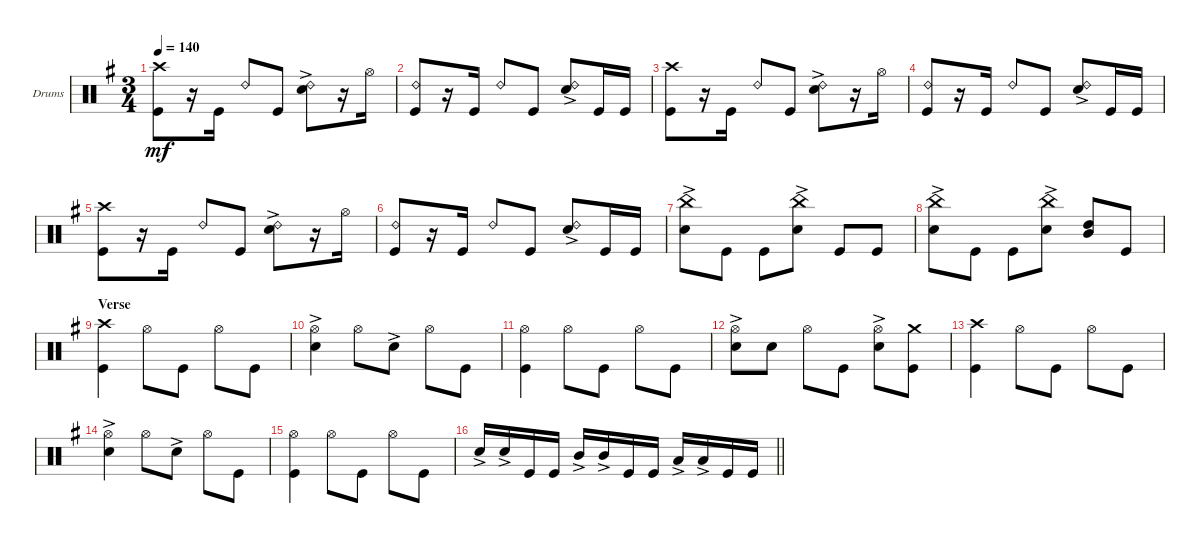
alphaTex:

\bracketExtendMode groupsimilarinstruments
\firstSystemTrackNameOrientation horizontal
\otherSystemsTrackNameOrientation horizontal
\track ("Drumkit" "Drums") {instrument percussion}
\staff {score}
\articulation defaults
\ts (3 4)
\tempo 140
\clef neutral
\ks eminor
("Kick (hit)" "Crash high (hit)").8{dy mf} r.16 "Kick (hit)".16 "Ride (bell) 2".8 "Kick (hit)".8 ("Snare (hit) 2"{ac} "Ride (bell) 2").8 r.16 "Hi-Hat (open)".16 |
("Kick (hit)" "Ride (bell) 2").8 r.16 "Kick (hit)".16 "Ride (bell) 2".8 "Kick (hit)".8 ("Snare (hit) 2"{ac} "Ride (bell) 2").8 "Kick (hit)".16 "Kick (hit)".16 |
("Kick (hit)" "Crash high (hit)").8 r.16 "Kick (hit)".16 "Ride (bell) 2".8 "Kick (hit)".8 ("Snare (hit) 2"{ac} "Ride (bell) 2").8 r.16 "Hi-Hat (open)".16 |
("Kick (hit)" "Ride (bell) 2").8 r.16 "Kick (hit)".16 "Ride (bell) 2".8 "Kick (hit)".8 ("Snare (hit) 2"{ac} "Ride (bell) 2").8 "Kick (hit)".16 "Kick (hit)".16 |
("Kick (hit)" "Crash high (hit)").8 r.16 "Kick (hit)".16 "Ride (bell) 2".8 "Kick (hit)".8 ("Snare (hit) 2"{ac} "Ride (bell) 2").8 r.16 "Hi-Hat (open)".16 |
("Kick (hit)" "Ride (bell) 2").8 r.16 "Kick (hit)".16 "Ride (bell) 2".8 "Kick (hit)".8 ("Snare (hit) 2"{ac} "Ride (bell) 2").8 "Kick (hit)".16 "Kick (hit)".16 |
("Snare (hit) 2"{ac} "China (hit)").8 "Kick (hit)".8 "Kick (hit)".8 ("Snare (hit) 2"{ac} "China (hit)").8 "Kick (hit)".8 "Kick (hit)".8 |
("Snare (hit) 2"{ac} "China (hit)").8 "Kick (hit)".8 "Kick (hit)".8 ("Snare (hit) 2"{ac} "China (hit)").8 ("Mid Tom (hit)" "High Tom (hit)").8 "Kick (hit)".8 |
\section ("" "Verse")
("Kick (hit)" "Crash high (hit)").4 "Hi-Hat (open)".8 "Kick (hit)".8 "Hi-Hat (open)".8 "Kick (hit)".8 |
("Snare (hit) 2"{ac} "Hi-Hat (open)").4 "Hi-Hat (open)".8 "Snare (hit) 2"{ac}.8 "Hi-Hat (open)".8 "Kick (hit)".8 |
("Kick (hit)" "Hi-Hat (open)").4 "Hi-Hat (open)".8 "Kick (hit)".8 "Hi-Hat (open)".8 "Kick (hit)".8 |
("Snare (hit) 2"{ac} "Hi-Hat (open)").8 "Snare (hit) 2".8 "Hi-Hat (open)".8 "Kick (hit)".8 ("Hi-Hat (open)" "Snare (hit) 2"{ac}).8 ("Kick (hit)" "Crash medium (hit)").8 |
("Kick (hit)" "Crash high (hit)").4 "Hi-Hat (open)".8 "Kick (hit)".8 "Hi-Hat (open)".8 "Kick (hit)".8 |
("Snare (hit) 2"{ac} "Hi-Hat (open)").4 "Hi-Hat (open)".8 "Snare (hit) 2"{ac}.8 "Hi-Hat (open)".8 "Kick (hit)".8 |
("Kick (hit)" "Hi-Hat (open)").4 "Hi-Hat (open)".8 "Kick (hit)".8 "Hi-Hat (open)".8 "Kick (hit)".8 |
\barLineRight lightlight "Snare (hit) 2"{ac}.16 "Snare (hit) 2"{ac}.16 "Kick (hit)".16 "Kick (hit)".16 "Mid Tom (hit)"{ac}.16 "Mid Tom (hit)"{ac}.16 "Kick (hit)".16 "Kick (hit)".16 "Low Tom (hit)"{ac}.16 "Low Tom (hit)"{ac}.16 "Kick (hit)".16 "Kick (hit)".16
